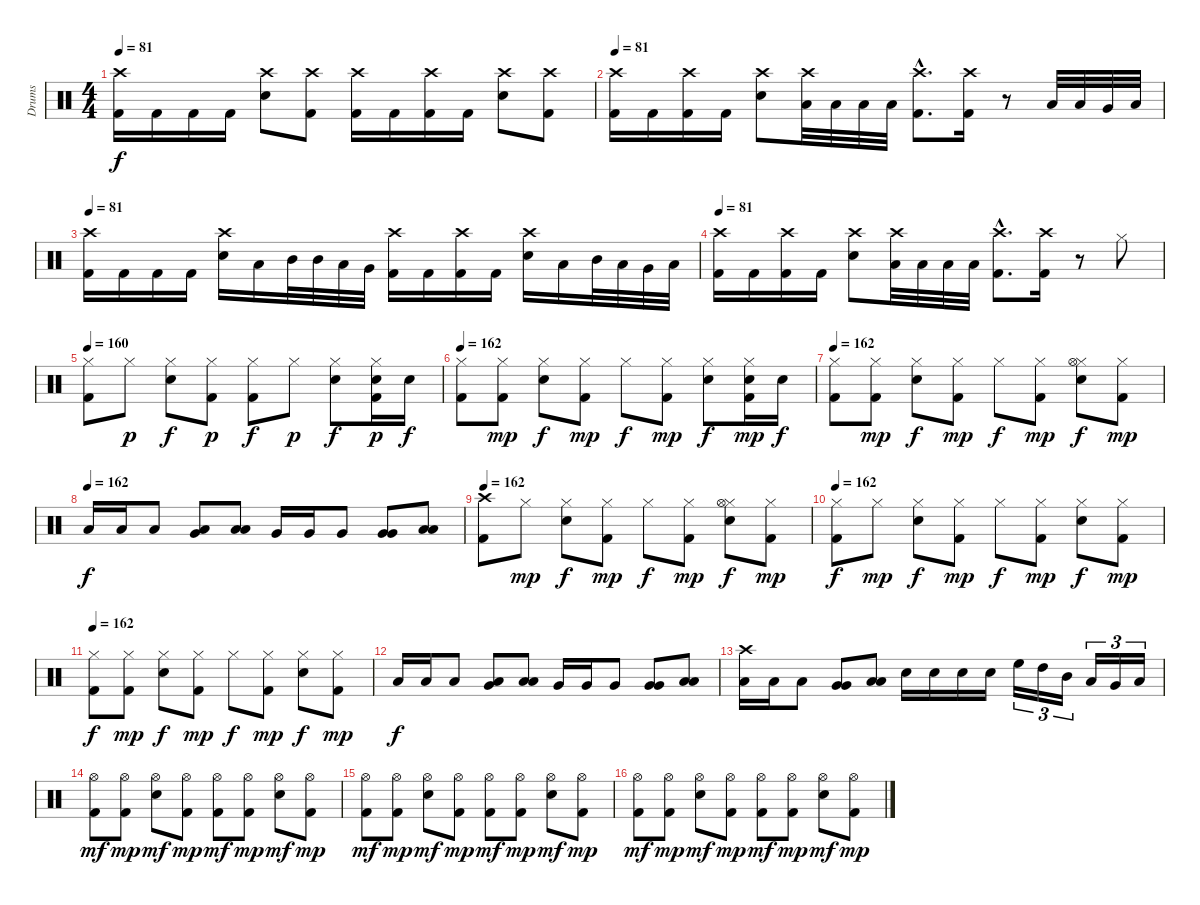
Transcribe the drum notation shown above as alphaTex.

\track ("Drums" "Drums") {instrument percussion}
\staff {score}
\articulation defaults
\ts (4 4)
\tempo 81
\clef neutral
\ks c
("Crash high (hit)" "Kick (hit) 2").16{dy f} "Kick (hit) 2".16 "Kick (hit) 2".16 "Kick (hit) 2".16 ("Crash high (hit)" "Electric Snare (hit)").8 ("Crash high (hit)" "Kick (hit) 2").8 ("Crash high (hit)" "Kick (hit) 2").16 "Kick (hit) 2".16 ("Crash high (hit)" "Kick (hit) 2").16 "Kick (hit) 2".16 ("Crash high (hit)" "Electric Snare (hit)").8 ("Crash high (hit)" "Kick (hit) 2").8 |
\tempo 81
("Crash high (hit)" "Kick (hit) 2").16 "Kick (hit) 2".16 ("Crash high (hit)" "Kick (hit) 2").16 "Kick (hit) 2".16 ("Crash high (hit)" "Electric Snare (hit)").8 ("Crash high (hit)" "Low Floor Tom (hit)").32 "Low Floor Tom (hit)".32 "Low Floor Tom (hit)".32 "Low Floor Tom (hit)".32 ("Crash high (hit)"{hac} "Kick (hit) 2"{hac}).8{d} ("Crash high (hit)" "Kick (hit) 2").16 r.8 "Low Tom (hit)".32 "Low Tom (hit)".32 "Very Low Tom (hit)".32 "Low Floor Tom (hit)".32 |
\tempo 81
("Crash high (hit)" "Kick (hit) 2").16 "Kick (hit) 2".16 "Kick (hit) 2".16 "Kick (hit) 2".16 ("Crash high (hit)" "Electric Snare (hit)").16 "Low Tom (hit)".16 "Mid Tom (hit)".32 "Mid Tom (hit)".32 "Low Tom (hit)".32 "Very Low Tom (hit)".32 ("Crash high (hit)" "Kick (hit) 2").16 "Kick (hit) 2".16 ("Crash high (hit)" "Kick (hit) 2").16 "Kick (hit) 2".16 ("Crash high (hit)" "Electric Snare (hit)").16 "Low Tom (hit)".16 "Mid Tom (hit)".32 "Low Tom (hit)".32 "Very Low Tom (hit)".32 "Low Floor Tom (hit)".32 |
\tempo 81
("Crash high (hit)" "Kick (hit) 2").16 "Kick (hit) 2".16 ("Crash high (hit)" "Kick (hit) 2").16 "Kick (hit) 2".16 ("Crash high (hit)" "Electric Snare (hit)").8 ("Crash high (hit)" "Low Floor Tom (hit)").32 "Low Floor Tom (hit)".32 "Low Floor Tom (hit)".32 "Low Floor Tom (hit)".32 ("Crash high (hit)"{hac} "Kick (hit) 2"{hac}).8{d} ("Crash high (hit)" "Kick (hit) 2").16 r.8 "Hi-Hat (closed)".8 |
\tempo 162
\tempo 160
("Hi-Hat (closed)" "Kick (hit) 2").8 "Hi-Hat (closed)".8{dy p} ("Hi-Hat (closed)" "Electric Snare (hit)").8{dy f} ("Hi-Hat (closed)" "Kick (hit) 2").8{dy p} ("Hi-Hat (closed)" "Kick (hit) 2").8{dy f} "Hi-Hat (closed)".8{dy p} ("Hi-Hat (closed)" "Electric Snare (hit)").8{dy f} ("Hi-Hat (closed)" "Electric Snare (hit)" "Kick (hit) 2").16{dy p} "Electric Snare (hit)".16{dy f} |
\tempo 162
("Hi-Hat (closed)" "Kick (hit) 2").8 ("Hi-Hat (closed)" "Kick (hit) 2").8{dy mp} ("Hi-Hat (closed)" "Electric Snare (hit)").8{dy f} ("Hi-Hat (closed)" "Kick (hit) 2").8{dy mp} "Hi-Hat (closed)".8{dy f} ("Hi-Hat (closed)" "Kick (hit) 2").8{dy mp} ("Hi-Hat (closed)" "Electric Snare (hit)").8{dy f} ("Hi-Hat (closed)" "Electric Snare (hit)" "Kick (hit) 2").16{dy mp} "Electric Snare (hit)".16{dy f} |
\tempo 162
("Hi-Hat (closed)" "Kick (hit) 2").8 ("Hi-Hat (closed)" "Kick (hit) 2").8{dy mp} ("Hi-Hat (closed)" "Electric Snare (hit)").8{dy f} ("Hi-Hat (closed)" "Kick (hit) 2").8{dy mp} "Hi-Hat (closed)".8{dy f} ("Hi-Hat (closed)" "Kick (hit) 2").8{dy mp} ("Hi-Hat (closed)" "Hi-Hat (open)" "Electric Snare (hit)").8{dy f} ("Hi-Hat (closed)" "Kick (hit) 2").8{dy mp} |
\tempo (162)
"Low Tom (hit)".16{dy f} "Low Tom (hit)".16 "Low Tom (hit)".8 ("Low Tom (hit)" "Very Low Tom (hit)").8 ("Low Tom (hit)" "Low Floor Tom (hit)").8 "Very Low Tom (hit)".16 "Very Low Tom (hit)".16 "Very Low Tom (hit)".8 ("Very Low Tom (hit)" "Very Low Tom (hit)").8 ("Low Floor Tom (hit)" "Low Floor Tom (hit)").8 |
\tempo 162
("Crash high (hit)" "Kick (hit) 2").8 "Hi-Hat (closed)".8{dy mp} ("Hi-Hat (closed)" "Electric Snare (hit)").8{dy f} ("Hi-Hat (closed)" "Kick (hit) 2").8{dy mp} "Hi-Hat (closed)".8{dy f} ("Hi-Hat (closed)" "Kick (hit) 2").8{dy mp} ("Hi-Hat (closed)" "Hi-Hat (open)" "Electric Snare (hit)").8{dy f} ("Hi-Hat (closed)" "Kick (hit) 2").8{dy mp} |
\tempo 162
("Hi-Hat (closed)" "Kick (hit) 2").8{dy f} "Hi-Hat (closed)".8{dy mp} ("Hi-Hat (closed)" "Electric Snare (hit)").8{dy f} ("Hi-Hat (closed)" "Kick (hit) 2").8{dy mp} "Hi-Hat (closed)".8{dy f} ("Hi-Hat (closed)" "Kick (hit) 2").8{dy mp} ("Hi-Hat (closed)" "Electric Snare (hit)").8{dy f} ("Hi-Hat (closed)" "Kick (hit) 2").8{dy mp} |
\tempo 162
("Hi-Hat (closed)" "Kick (hit) 2").8{dy f} ("Hi-Hat (closed)" "Kick (hit) 2").8{dy mp} ("Hi-Hat (closed)" "Electric Snare (hit)").8{dy f} ("Hi-Hat (closed)" "Kick (hit) 2").8{dy mp} "Hi-Hat (closed)".8{dy f} ("Hi-Hat (closed)" "Kick (hit) 2").8{dy mp} ("Hi-Hat (closed)" "Electric Snare (hit)").8{dy f} ("Hi-Hat (closed)" "Kick (hit) 2").8{dy mp} |
"Low Tom (hit)".16{dy f} "Low Tom (hit)".16 "Low Tom (hit)".8 ("Low Tom (hit)" "Very Low Tom (hit)").8 ("Low Tom (hit)" "Low Floor Tom (hit)").8 "Very Low Tom (hit)".16 "Very Low Tom (hit)".16 "Very Low Tom (hit)".8 ("Very Low Tom (hit)" "Very Low Tom (hit)").8 ("Low Floor Tom (hit)" "Low Floor Tom (hit)").8 |
("Crash high (hit)" "Low Floor Tom (hit)").16 "Low Floor Tom (hit)".16 "Low Floor Tom (hit)".8 ("Very Low Tom (hit)" "Very Low Tom (hit)").8 ("Low Floor Tom (hit)" "Low Floor Tom (hit)").8 "Electric Snare (hit)".16 "Electric Snare (hit)".16 "Electric Snare (hit)".16 "Electric Snare (hit)".16 "High Floor Tom (hit)".16{tu (3 2)} "High Tom (hit)".16{tu (3 2)} "Mid Tom (hit)".16{tu (3 2)} "Low Tom (hit)".16{tu (3 2)} "Very Low Tom (hit)".16{tu (3 2)} "Low Floor Tom (hit)".16{tu (3 2)} |
("Hi-Hat (open)" "Kick (hit) 2").8{dy mf} ("Hi-Hat (open)" "Kick (hit) 2").8{dy mp} ("Hi-Hat (open)" "Electric Snare (hit)").8{dy mf} ("Hi-Hat (open)" "Kick (hit) 2").8{dy mp} ("Hi-Hat (open)" "Kick (hit) 2").8{dy mf} ("Hi-Hat (open)" "Kick (hit) 2").8{dy mp} ("Hi-Hat (open)" "Electric Snare (hit)").8{dy mf} ("Hi-Hat (open)" "Kick (hit) 2").8{dy mp} |
("Hi-Hat (open)" "Kick (hit) 2").8{dy mf} ("Hi-Hat (open)" "Kick (hit) 2").8{dy mp} ("Hi-Hat (open)" "Electric Snare (hit)").8{dy mf} ("Hi-Hat (open)" "Kick (hit) 2").8{dy mp} ("Hi-Hat (open)" "Kick (hit) 2").8{dy mf} ("Hi-Hat (open)" "Kick (hit) 2").8{dy mp} ("Hi-Hat (open)" "Electric Snare (hit)").8{dy mf} ("Hi-Hat (open)" "Kick (hit) 2").8{dy mp} |
("Hi-Hat (open)" "Kick (hit) 2").8{dy mf} ("Hi-Hat (open)" "Kick (hit) 2").8{dy mp} ("Hi-Hat (open)" "Electric Snare (hit)").8{dy mf} ("Hi-Hat (open)" "Kick (hit) 2").8{dy mp} ("Hi-Hat (open)" "Kick (hit) 2").8{dy mf} ("Hi-Hat (open)" "Kick (hit) 2").8{dy mp} ("Hi-Hat (open)" "Electric Snare (hit)").8{dy mf} ("Hi-Hat (open)" "Kick (hit) 2").8{dy mp}
